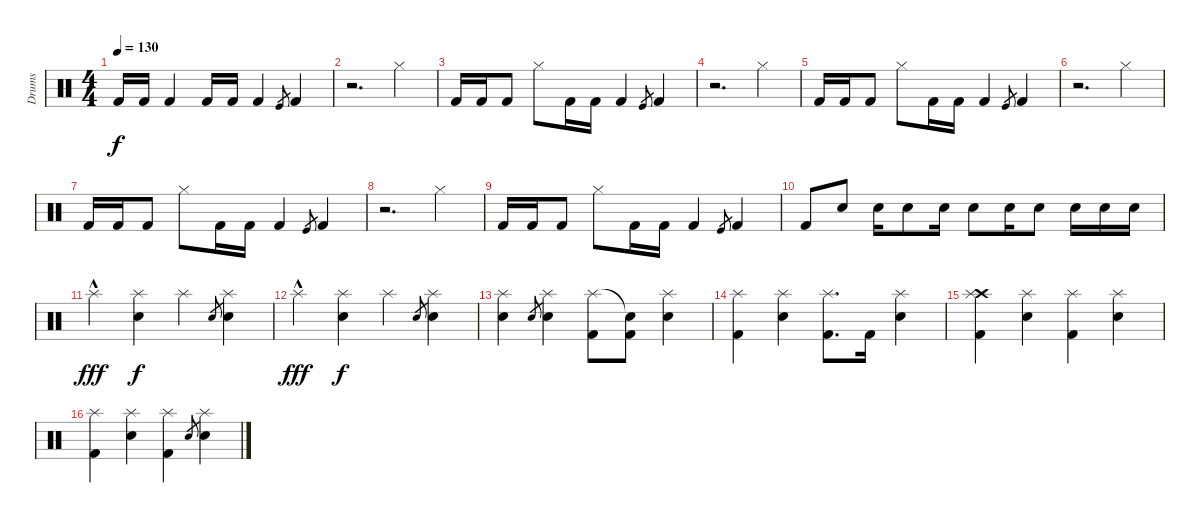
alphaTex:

\track ("Drums" "Drums") {instrument percussion}
\staff {score}
\articulation defaults
\ts (4 4)
\tempo 130
\clef neutral
\ks c "Kick (hit) 2".16{dy f} "Kick (hit) 2".16 "Kick (hit) 2".4 "Kick (hit) 2".16 "Kick (hit) 2".16 "Kick (hit) 2".4 "Kick (hit)".8{gr} "Kick (hit) 2".4
|
r.2{d} "Hi-Hat (closed)".4 |
"Kick (hit) 2".16 "Kick (hit) 2".16 "Kick (hit) 2".8 "Hi-Hat (closed)".8 "Kick (hit) 2".16 "Kick (hit) 2".16 "Kick (hit) 2".4 "Kick (hit)".8{gr} "Kick (hit) 2".4 |
r.2{d} "Hi-Hat (closed)".4 |
"Kick (hit) 2".16 "Kick (hit) 2".16 "Kick (hit) 2".8 "Hi-Hat (closed)".8 "Kick (hit) 2".16 "Kick (hit) 2".16 "Kick (hit) 2".4 "Kick (hit)".8{gr} "Kick (hit) 2".4 |
r.2{d} "Hi-Hat (closed)".4 |
"Kick (hit) 2".16 "Kick (hit) 2".16 "Kick (hit) 2".8 "Hi-Hat (closed)".8 "Kick (hit) 2".16 "Kick (hit) 2".16 "Kick (hit) 2".4 "Kick (hit)".8{gr} "Kick (hit) 2".4 |
r.2{d} "Hi-Hat (closed)".4 |
"Kick (hit) 2".16 "Kick (hit) 2".16 "Kick (hit) 2".8 "Hi-Hat (closed)".8 "Kick (hit) 2".16 "Kick (hit) 2".16 "Kick (hit) 2".4 "Kick (hit)".8{gr} "Kick (hit) 2".4 |
"Kick (hit) 2".8 "Snare (hit) 2".8 "Snare (hit) 2".16 "Snare (hit) 2".8 "Snare (hit) 2".16 "Snare (hit) 2".8 "Snare (hit) 2".16 "Snare (hit) 2".8 "Snare (hit) 2".16 "Snare (hit) 2".16 "Snare (hit) 2".16 |
"Splash (hit)"{hac}.4{dy fff} ("Splash (hit)" "Snare (hit) 2").4{dy f} "Splash (hit)".4 "Snare (hit) 2"{x}.8{gr} ("Splash (hit)" "Snare (hit) 2").4 |
"Splash (hit)"{hac}.4{dy fff} ("Splash (hit)" "Snare (hit) 2").4{dy f} "Splash (hit)".4 "Snare (hit) 2"{x}.8{gr} ("Splash (hit)" "Snare (hit) 2").4 |
("Splash (hit)" "Snare (hit) 2").4 "Snare (hit) 2"{x}.8{gr} ("Splash (hit)" "Snare (hit) 2").4 ("Splash (hit)" "Kick (hit) 2").8 ("Snare (hit)"{t} "Kick (hit) 2").8 ("Splash (hit)" "Snare (hit) 2").4 |
("Splash (hit)" "Kick (hit) 2").4 ("Splash (hit)" "Snare (hit) 2").4 ("Splash (hit)" "Kick (hit) 2").8{d} "Kick (hit) 2".16 ("Splash (hit)" "Snare (hit) 2").4 |
("Crash high (hit)" "Splash (hit)" "Kick (hit) 2").4 ("Splash (hit)" "Snare (hit) 2").4 ("Splash (hit)" "Kick (hit) 2").4 ("Splash (hit)" "Snare (hit) 2").4 |
("Splash (hit)" "Kick (hit) 2").4 ("Splash (hit)" "Snare (hit) 2").4 ("Splash (hit)" "Kick (hit) 2").4 "Snare (hit) 2"{x}.8{gr} ("Splash (hit)" "Snare (hit) 2").4
